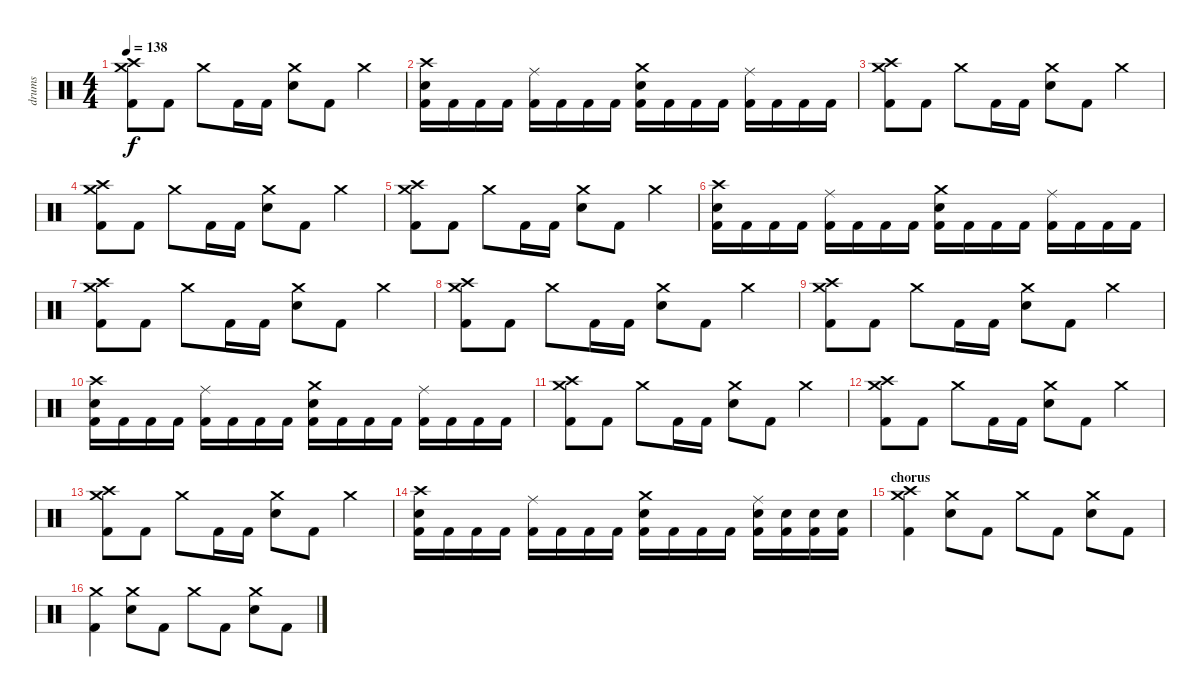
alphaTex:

\track ("drums" "drums") {instrument percussion}
\staff {score}
\articulation defaults
\ts (4 4)
\tempo 138
\clef neutral
\ks c
("Crash high (hit)" "Crash medium (hit)" "Kick (hit) 2").8{dy f} "Kick (hit) 2".8 "Crash medium (hit)".8 "Kick (hit) 2".16 "Kick (hit) 2".16 ("Crash medium (hit)" "Electric Snare (hit)").8 "Kick (hit) 2".8 "Crash medium (hit)".4 |
("Crash high (hit)" "Electric Snare (hit)" "Kick (hit) 2").16 "Kick (hit) 2".16 "Kick (hit) 2".16 "Kick (hit) 2".16 ("Ride (middle)" "Kick (hit) 2").16 "Kick (hit) 2".16 "Kick (hit) 2".16 "Kick (hit) 2".16 ("Crash medium (hit)" "Electric Snare (hit)" "Kick (hit) 2").16 "Kick (hit) 2".16 "Kick (hit) 2".16 "Kick (hit) 2".16 ("Ride (middle)" "Kick (hit) 2").16 "Kick (hit) 2".16 "Kick (hit) 2".16 "Kick (hit) 2".16 |
("Crash high (hit)" "Crash medium (hit)" "Kick (hit) 2").8 "Kick (hit) 2".8 "Crash medium (hit)".8 "Kick (hit) 2".16 "Kick (hit) 2".16 ("Crash medium (hit)" "Electric Snare (hit)").8 "Kick (hit) 2".8 "Crash medium (hit)".4 |
("Crash high (hit)" "Crash medium (hit)" "Kick (hit) 2").8 "Kick (hit) 2".8 "Crash medium (hit)".8 "Kick (hit) 2".16 "Kick (hit) 2".16 ("Crash medium (hit)" "Electric Snare (hit)").8 "Kick (hit) 2".8 "Crash medium (hit)".4 |
("Crash high (hit)" "Crash medium (hit)" "Kick (hit) 2").8 "Kick (hit) 2".8 "Crash medium (hit)".8 "Kick (hit) 2".16 "Kick (hit) 2".16 ("Crash medium (hit)" "Electric Snare (hit)").8 "Kick (hit) 2".8 "Crash medium (hit)".4 |
("Crash high (hit)" "Electric Snare (hit)" "Kick (hit) 2").16 "Kick (hit) 2".16 "Kick (hit) 2".16 "Kick (hit) 2".16 ("Ride (middle)" "Kick (hit) 2").16 "Kick (hit) 2".16 "Kick (hit) 2".16 "Kick (hit) 2".16 ("Crash medium (hit)" "Electric Snare (hit)" "Kick (hit) 2").16 "Kick (hit) 2".16 "Kick (hit) 2".16 "Kick (hit) 2".16 ("Ride (middle)" "Kick (hit) 2").16 "Kick (hit) 2".16 "Kick (hit) 2".16 "Kick (hit) 2".16 |
("Crash high (hit)" "Crash medium (hit)" "Kick (hit) 2").8 "Kick (hit) 2".8 "Crash medium (hit)".8 "Kick (hit) 2".16 "Kick (hit) 2".16 ("Crash medium (hit)" "Electric Snare (hit)").8 "Kick (hit) 2".8 "Crash medium (hit)".4 |
("Crash high (hit)" "Crash medium (hit)" "Kick (hit) 2").8 "Kick (hit) 2".8 "Crash medium (hit)".8 "Kick (hit) 2".16 "Kick (hit) 2".16 ("Crash medium (hit)" "Electric Snare (hit)").8 "Kick (hit) 2".8 "Crash medium (hit)".4 |
("Crash high (hit)" "Crash medium (hit)" "Kick (hit) 2").8 "Kick (hit) 2".8 "Crash medium (hit)".8 "Kick (hit) 2".16 "Kick (hit) 2".16 ("Crash medium (hit)" "Electric Snare (hit)").8 "Kick (hit) 2".8 "Crash medium (hit)".4 |
("Crash high (hit)" "Electric Snare (hit)" "Kick (hit) 2").16 "Kick (hit) 2".16 "Kick (hit) 2".16 "Kick (hit) 2".16 ("Ride (middle)" "Kick (hit) 2").16 "Kick (hit) 2".16 "Kick (hit) 2".16 "Kick (hit) 2".16 ("Crash medium (hit)" "Electric Snare (hit)" "Kick (hit) 2").16 "Kick (hit) 2".16 "Kick (hit) 2".16 "Kick (hit) 2".16 ("Ride (middle)" "Kick (hit) 2").16 "Kick (hit) 2".16 "Kick (hit) 2".16 "Kick (hit) 2".16 |
("Crash high (hit)" "Crash medium (hit)" "Kick (hit) 2").8 "Kick (hit) 2".8 "Crash medium (hit)".8 "Kick (hit) 2".16 "Kick (hit) 2".16 ("Crash medium (hit)" "Electric Snare (hit)").8 "Kick (hit) 2".8 "Crash medium (hit)".4 |
("Crash high (hit)" "Crash medium (hit)" "Kick (hit) 2").8 "Kick (hit) 2".8 "Crash medium (hit)".8 "Kick (hit) 2".16 "Kick (hit) 2".16 ("Crash medium (hit)" "Electric Snare (hit)").8 "Kick (hit) 2".8 "Crash medium (hit)".4 |
("Crash high (hit)" "Crash medium (hit)" "Kick (hit) 2").8 "Kick (hit) 2".8 "Crash medium (hit)".8 "Kick (hit) 2".16 "Kick (hit) 2".16 ("Crash medium (hit)" "Electric Snare (hit)").8 "Kick (hit) 2".8 "Crash medium (hit)".4 |
("Crash high (hit)" "Electric Snare (hit)" "Kick (hit) 2").16 "Kick (hit) 2".16 "Kick (hit) 2".16 "Kick (hit) 2".16 ("Ride (middle)" "Kick (hit) 2").16 "Kick (hit) 2".16 "Kick (hit) 2".16 "Kick (hit) 2".16 ("Crash medium (hit)" "Electric Snare (hit)" "Kick (hit) 2").16 "Kick (hit) 2".16 "Kick (hit) 2".16 "Kick (hit) 2".16 ("Ride (middle)" "Electric Snare (hit)" "Kick (hit) 2").16 ("Electric Snare (hit)" "Kick (hit) 2").16 ("Electric Snare (hit)" "Kick (hit) 2").16 ("Electric Snare (hit)" "Kick (hit) 2").16 |
\section ("" "chorus")
("Crash high (hit)" "Crash medium (hit)" "Kick (hit) 2").4 ("Crash medium (hit)" "Electric Snare (hit)").8 "Kick (hit) 2".8 "Crash medium (hit)".8 "Kick (hit) 2".8 ("Crash medium (hit)" "Electric Snare (hit)").8 "Kick (hit) 2".8 |
("Crash medium (hit)" "Kick (hit) 2").4 ("Crash medium (hit)" "Electric Snare (hit)").8 "Kick (hit) 2".8 "Crash medium (hit)".8 "Kick (hit) 2".8 ("Crash medium (hit)" "Electric Snare (hit)").8 "Kick (hit) 2".8
